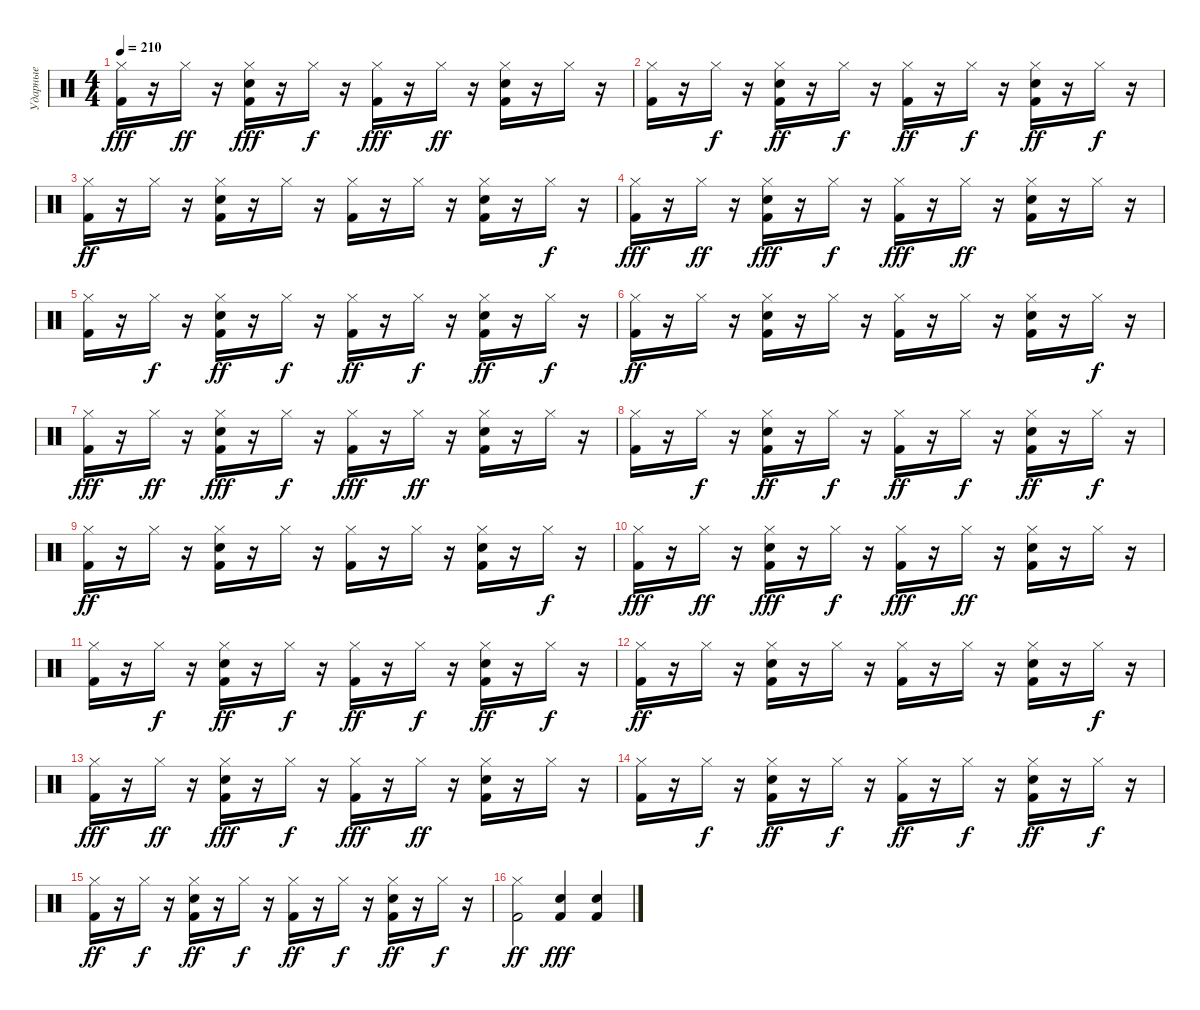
\track ("Ударные" "Ударные") {instrument percussion}
\staff {score}
\articulation defaults
\ts (4 4)
\tempo 210
\clef neutral
\ks c
("Kick (hit) 2" "Hi-Hat (closed)").16{dy fff} r.16 "Hi-Hat (closed)".16{dy ff} r.16 ("Kick (hit) 2" "Snare (hit) 2" "Hi-Hat (closed)").16{dy fff} r.16 "Hi-Hat (closed)".16{dy f} r.16 ("Kick (hit) 2" "Hi-Hat (closed)").16{dy fff} r.16 "Hi-Hat (closed)".16{dy ff} r.16 ("Kick (hit) 2" "Snare (hit) 2" "Hi-Hat (closed)").16 r.16 "Hi-Hat (closed)".16 r.16 |
("Kick (hit) 2" "Hi-Hat (closed)").16 r.16 "Hi-Hat (closed)".16{dy f} r.16 ("Kick (hit) 2" "Snare (hit) 2" "Hi-Hat (closed)").16{dy ff} r.16 "Hi-Hat (closed)".16{dy f} r.16 ("Kick (hit) 2" "Hi-Hat (closed)").16{dy ff} r.16 "Hi-Hat (closed)".16{dy f} r.16 ("Kick (hit) 2" "Snare (hit) 2" "Hi-Hat (closed)").16{dy ff} r.16 "Hi-Hat (closed)".16{dy f} r.16 |
("Kick (hit) 2" "Hi-Hat (closed)").16{dy ff} r.16 "Hi-Hat (closed)".16 r.16 ("Kick (hit) 2" "Snare (hit) 2" "Hi-Hat (closed)").16 r.16 "Hi-Hat (closed)".16 r.16 ("Kick (hit) 2" "Hi-Hat (closed)").16 r.16 "Hi-Hat (closed)".16 r.16 ("Kick (hit) 2" "Snare (hit) 2" "Hi-Hat (closed)").16 r.16 "Hi-Hat (closed)".16{dy f} r.16 |
("Kick (hit) 2" "Hi-Hat (closed)").16{dy fff} r.16 "Hi-Hat (closed)".16{dy ff} r.16 ("Kick (hit) 2" "Snare (hit) 2" "Hi-Hat (closed)").16{dy fff} r.16 "Hi-Hat (closed)".16{dy f} r.16 ("Kick (hit) 2" "Hi-Hat (closed)").16{dy fff} r.16 "Hi-Hat (closed)".16{dy ff} r.16 ("Kick (hit) 2" "Snare (hit) 2" "Hi-Hat (closed)").16 r.16 "Hi-Hat (closed)".16 r.16 |
("Kick (hit) 2" "Hi-Hat (closed)").16 r.16 "Hi-Hat (closed)".16{dy f} r.16 ("Kick (hit) 2" "Snare (hit) 2" "Hi-Hat (closed)").16{dy ff} r.16 "Hi-Hat (closed)".16{dy f} r.16 ("Kick (hit) 2" "Hi-Hat (closed)").16{dy ff} r.16 "Hi-Hat (closed)".16{dy f} r.16 ("Kick (hit) 2" "Snare (hit) 2" "Hi-Hat (closed)").16{dy ff} r.16 "Hi-Hat (closed)".16{dy f} r.16 |
("Kick (hit) 2" "Hi-Hat (closed)").16{dy ff} r.16 "Hi-Hat (closed)".16 r.16 ("Kick (hit) 2" "Snare (hit) 2" "Hi-Hat (closed)").16 r.16 "Hi-Hat (closed)".16 r.16 ("Kick (hit) 2" "Hi-Hat (closed)").16 r.16 "Hi-Hat (closed)".16 r.16 ("Kick (hit) 2" "Snare (hit) 2" "Hi-Hat (closed)").16 r.16 "Hi-Hat (closed)".16{dy f} r.16 |
("Kick (hit) 2" "Hi-Hat (closed)").16{dy fff} r.16 "Hi-Hat (closed)".16{dy ff} r.16 ("Kick (hit) 2" "Snare (hit) 2" "Hi-Hat (closed)").16{dy fff} r.16 "Hi-Hat (closed)".16{dy f} r.16 ("Kick (hit) 2" "Hi-Hat (closed)").16{dy fff} r.16 "Hi-Hat (closed)".16{dy ff} r.16 ("Kick (hit) 2" "Snare (hit) 2" "Hi-Hat (closed)").16 r.16 "Hi-Hat (closed)".16 r.16 |
("Kick (hit) 2" "Hi-Hat (closed)").16 r.16 "Hi-Hat (closed)".16{dy f} r.16 ("Kick (hit) 2" "Snare (hit) 2" "Hi-Hat (closed)").16{dy ff} r.16 "Hi-Hat (closed)".16{dy f} r.16 ("Kick (hit) 2" "Hi-Hat (closed)").16{dy ff} r.16 "Hi-Hat (closed)".16{dy f} r.16 ("Kick (hit) 2" "Snare (hit) 2" "Hi-Hat (closed)").16{dy ff} r.16 "Hi-Hat (closed)".16{dy f} r.16 |
("Kick (hit) 2" "Hi-Hat (closed)").16{dy ff} r.16 "Hi-Hat (closed)".16 r.16 ("Kick (hit) 2" "Snare (hit) 2" "Hi-Hat (closed)").16 r.16 "Hi-Hat (closed)".16 r.16 ("Kick (hit) 2" "Hi-Hat (closed)").16 r.16 "Hi-Hat (closed)".16 r.16 ("Kick (hit) 2" "Snare (hit) 2" "Hi-Hat (closed)").16 r.16 "Hi-Hat (closed)".16{dy f} r.16 |
("Kick (hit) 2" "Hi-Hat (closed)").16{dy fff} r.16 "Hi-Hat (closed)".16{dy ff} r.16 ("Kick (hit) 2" "Snare (hit) 2" "Hi-Hat (closed)").16{dy fff} r.16 "Hi-Hat (closed)".16{dy f} r.16 ("Kick (hit) 2" "Hi-Hat (closed)").16{dy fff} r.16 "Hi-Hat (closed)".16{dy ff} r.16 ("Kick (hit) 2" "Snare (hit) 2" "Hi-Hat (closed)").16 r.16 "Hi-Hat (closed)".16 r.16 |
("Kick (hit) 2" "Hi-Hat (closed)").16 r.16 "Hi-Hat (closed)".16{dy f} r.16 ("Kick (hit) 2" "Snare (hit) 2" "Hi-Hat (closed)").16{dy ff} r.16 "Hi-Hat (closed)".16{dy f} r.16 ("Kick (hit) 2" "Hi-Hat (closed)").16{dy ff} r.16 "Hi-Hat (closed)".16{dy f} r.16 ("Kick (hit) 2" "Snare (hit) 2" "Hi-Hat (closed)").16{dy ff} r.16 "Hi-Hat (closed)".16{dy f} r.16 |
("Kick (hit) 2" "Hi-Hat (closed)").16{dy ff} r.16 "Hi-Hat (closed)".16 r.16 ("Kick (hit) 2" "Snare (hit) 2" "Hi-Hat (closed)").16 r.16 "Hi-Hat (closed)".16 r.16 ("Kick (hit) 2" "Hi-Hat (closed)").16 r.16 "Hi-Hat (closed)".16 r.16 ("Kick (hit) 2" "Snare (hit) 2" "Hi-Hat (closed)").16 r.16 "Hi-Hat (closed)".16{dy f} r.16 |
("Kick (hit) 2" "Hi-Hat (closed)").16{dy fff} r.16 "Hi-Hat (closed)".16{dy ff} r.16 ("Kick (hit) 2" "Snare (hit) 2" "Hi-Hat (closed)").16{dy fff} r.16 "Hi-Hat (closed)".16{dy f} r.16 ("Kick (hit) 2" "Hi-Hat (closed)").16{dy fff} r.16 "Hi-Hat (closed)".16{dy ff} r.16 ("Kick (hit) 2" "Snare (hit) 2" "Hi-Hat (closed)").16 r.16 "Hi-Hat (closed)".16 r.16 |
("Kick (hit) 2" "Hi-Hat (closed)").16 r.16 "Hi-Hat (closed)".16{dy f} r.16 ("Kick (hit) 2" "Snare (hit) 2" "Hi-Hat (closed)").16{dy ff} r.16 "Hi-Hat (closed)".16{dy f} r.16 ("Kick (hit) 2" "Hi-Hat (closed)").16{dy ff} r.16 "Hi-Hat (closed)".16{dy f} r.16 ("Kick (hit) 2" "Snare (hit) 2" "Hi-Hat (closed)").16{dy ff} r.16 "Hi-Hat (closed)".16{dy f} r.16 |
("Kick (hit) 2" "Hi-Hat (closed)").16{dy ff} r.16 "Hi-Hat (closed)".16{dy f} r.16 ("Kick (hit) 2" "Snare (hit) 2" "Hi-Hat (closed)").16{dy ff} r.16 "Hi-Hat (closed)".16{dy f} r.16 ("Kick (hit) 2" "Hi-Hat (closed)").16{dy ff} r.16 "Hi-Hat (closed)".16{dy f} r.16 ("Kick (hit) 2" "Snare (hit) 2" "Hi-Hat (closed)").16{dy ff} r.16 "Hi-Hat (closed)".16{dy f} r.16 |
("Kick (hit) 2" "Hi-Hat (closed)").2{dy ff} ("Snare (hit) 2" "Kick (hit) 2").4{dy fff} ("Snare (hit) 2" "Kick (hit) 2").4
